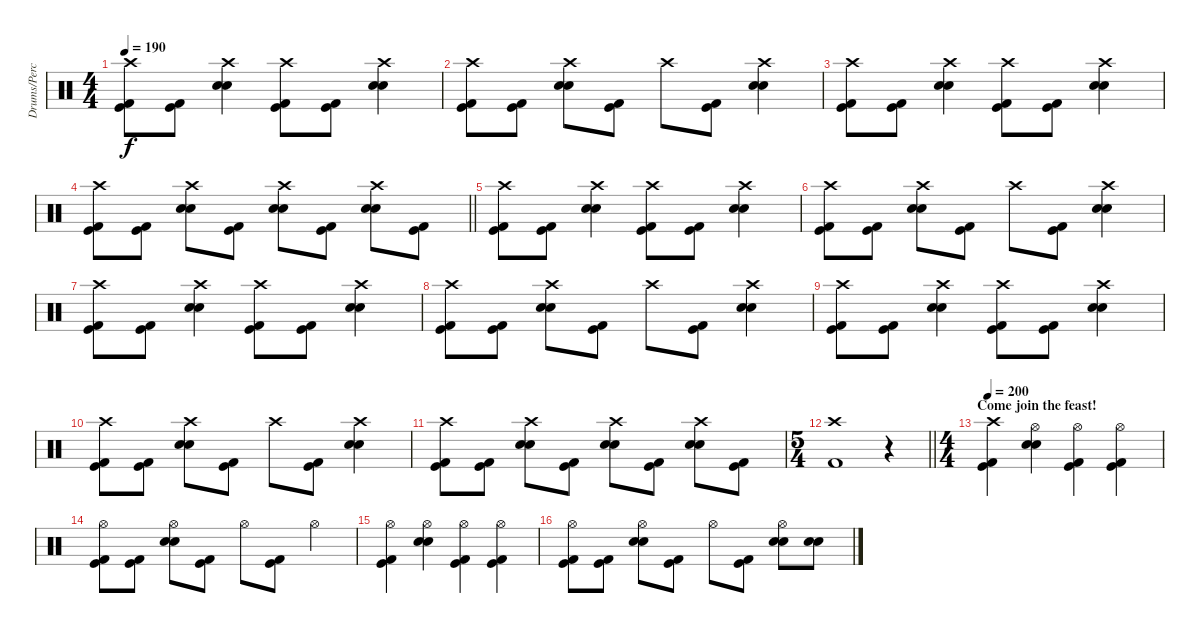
\track ("Drums/Percussion" "Drums/Perc") {instrument percussion}
\staff {score}
\articulation defaults
\ts (4 4)
\tempo 190
\clef neutral
\ks c
("Crash high (hit)" "Kick (hit)" "Kick (hit) 2").8{dy f} ("Kick (hit)" "Kick (hit) 2").8 ("Crash high (hit)" "Electric Snare (hit)" "Snare (hit) 2").4 ("Crash high (hit)" "Kick (hit)" "Kick (hit) 2").8 ("Kick (hit)" "Kick (hit) 2").8 ("Crash high (hit)" "Electric Snare (hit)" "Snare (hit) 2").4 |
("Crash high (hit)" "Kick (hit)" "Kick (hit) 2").8 ("Kick (hit)" "Kick (hit) 2").8 ("Crash high (hit)" "Electric Snare (hit)" "Snare (hit) 2").8 ("Kick (hit)" "Kick (hit) 2").8 "Crash high (hit)".8 ("Kick (hit)" "Kick (hit) 2").8 ("Crash high (hit)" "Electric Snare (hit)" "Snare (hit) 2").4 |
("Crash high (hit)" "Kick (hit)" "Kick (hit) 2").8 ("Kick (hit)" "Kick (hit) 2").8 ("Crash high (hit)" "Electric Snare (hit)" "Snare (hit) 2").4 ("Crash high (hit)" "Kick (hit)" "Kick (hit) 2").8 ("Kick (hit)" "Kick (hit) 2").8 ("Crash high (hit)" "Electric Snare (hit)" "Snare (hit) 2").4 |
\barLineRight lightlight
("Crash high (hit)" "Kick (hit)" "Kick (hit) 2").8 ("Kick (hit)" "Kick (hit) 2").8 ("Crash high (hit)" "Electric Snare (hit)" "Snare (hit) 2").8 ("Kick (hit)" "Kick (hit) 2").8 ("Crash high (hit)" "Electric Snare (hit)" "Snare (hit) 2").8 ("Kick (hit)" "Kick (hit) 2").8 ("Crash high (hit)" "Electric Snare (hit)" "Snare (hit) 2").8 ("Kick (hit)" "Kick (hit) 2").8 |
("Crash high (hit)" "Kick (hit)" "Kick (hit) 2").8 ("Kick (hit)" "Kick (hit) 2").8 ("Crash high (hit)" "Electric Snare (hit)" "Snare (hit) 2").4 ("Crash high (hit)" "Kick (hit)" "Kick (hit) 2").8 ("Kick (hit)" "Kick (hit) 2").8 ("Crash high (hit)" "Electric Snare (hit)" "Snare (hit) 2").4 |
("Crash high (hit)" "Kick (hit)" "Kick (hit) 2").8 ("Kick (hit)" "Kick (hit) 2").8 ("Crash high (hit)" "Electric Snare (hit)" "Snare (hit) 2").8 ("Kick (hit)" "Kick (hit) 2").8 "Crash high (hit)".8 ("Kick (hit)" "Kick (hit) 2").8 ("Crash high (hit)" "Electric Snare (hit)" "Snare (hit) 2").4 |
("Crash high (hit)" "Kick (hit)" "Kick (hit) 2").8 ("Kick (hit)" "Kick (hit) 2").8 ("Crash high (hit)" "Electric Snare (hit)" "Snare (hit) 2").4 ("Crash high (hit)" "Kick (hit)" "Kick (hit) 2").8 ("Kick (hit)" "Kick (hit) 2").8 ("Crash high (hit)" "Electric Snare (hit)" "Snare (hit) 2").4 |
("Crash high (hit)" "Kick (hit)" "Kick (hit) 2").8 ("Kick (hit)" "Kick (hit) 2").8 ("Crash high (hit)" "Electric Snare (hit)" "Snare (hit) 2").8 ("Kick (hit)" "Kick (hit) 2").8 "Crash high (hit)".8 ("Kick (hit)" "Kick (hit) 2").8 ("Crash high (hit)" "Electric Snare (hit)" "Snare (hit) 2").4 |
("Crash high (hit)" "Kick (hit)" "Kick (hit) 2").8 ("Kick (hit)" "Kick (hit) 2").8 ("Crash high (hit)" "Electric Snare (hit)" "Snare (hit) 2").4 ("Crash high (hit)" "Kick (hit)" "Kick (hit) 2").8 ("Kick (hit)" "Kick (hit) 2").8 ("Crash high (hit)" "Electric Snare (hit)" "Snare (hit) 2").4 |
("Crash high (hit)" "Kick (hit)" "Kick (hit) 2").8 ("Kick (hit)" "Kick (hit) 2").8 ("Crash high (hit)" "Electric Snare (hit)" "Snare (hit) 2").8 ("Kick (hit)" "Kick (hit) 2").8 "Crash high (hit)".8 ("Kick (hit)" "Kick (hit) 2").8 ("Crash high (hit)" "Electric Snare (hit)" "Snare (hit) 2").4 |
("Crash high (hit)" "Kick (hit)" "Kick (hit) 2").8 ("Kick (hit)" "Kick (hit) 2").8 ("Crash high (hit)" "Electric Snare (hit)" "Snare (hit) 2").8 ("Kick (hit)" "Kick (hit) 2").8 ("Crash high (hit)" "Electric Snare (hit)" "Snare (hit) 2").8 ("Kick (hit)" "Kick (hit) 2").8 ("Crash high (hit)" "Electric Snare (hit)" "Snare (hit) 2").8 ("Kick (hit)" "Kick (hit) 2").8 |
\ts (5 4)
\barLineRight lightlight
("Crash high (hit)" "Kick (hit) 2").1 r.4 |
\ts (4 4)
\section ("" "Come join the feast!")
\tempo 200
("Crash high (hit)" "Kick (hit)" "Kick (hit) 2").4 ("Hi-Hat (open)" "Electric Snare (hit)" "Snare (hit) 2").4 ("Hi-Hat (open)" "Kick (hit)" "Kick (hit) 2").4 ("Hi-Hat (open)" "Kick (hit)" "Kick (hit) 2").4 |
("Hi-Hat (open)" "Kick (hit)" "Kick (hit) 2").8 ("Kick (hit)" "Kick (hit) 2").8 ("Hi-Hat (open)" "Electric Snare (hit)" "Snare (hit) 2").8 ("Kick (hit)" "Kick (hit) 2").8 "Hi-Hat (open)".8 ("Kick (hit)" "Kick (hit) 2").8 "Hi-Hat (open)".4 |
("Hi-Hat (open)" "Kick (hit)" "Kick (hit) 2").4 ("Hi-Hat (open)" "Electric Snare (hit)" "Snare (hit) 2").4 ("Hi-Hat (open)" "Kick (hit)" "Kick (hit) 2").4 ("Hi-Hat (open)" "Kick (hit)" "Kick (hit) 2").4 |
("Hi-Hat (open)" "Kick (hit)" "Kick (hit) 2").8 ("Kick (hit)" "Kick (hit) 2").8 ("Hi-Hat (open)" "Electric Snare (hit)" "Snare (hit) 2").8 ("Kick (hit)" "Kick (hit) 2").8 "Hi-Hat (open)".8 ("Kick (hit)" "Kick (hit) 2").8 ("Hi-Hat (open)" "Electric Snare (hit)" "Snare (hit) 2").8 ("Electric Snare (hit)" "Snare (hit) 2").8
